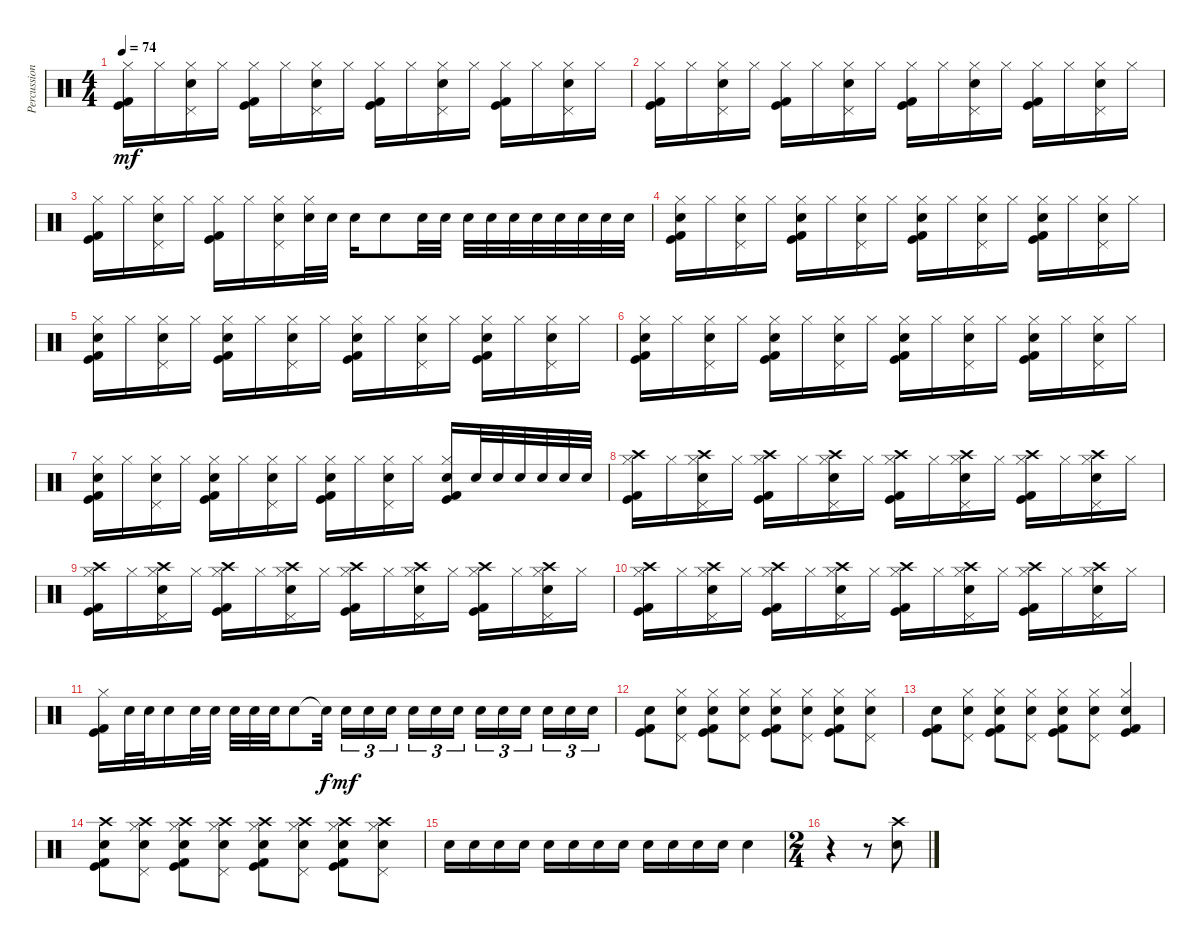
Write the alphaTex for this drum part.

\track ("Percussion" "Percussion") {instrument percussion}
\staff {score}
\articulation defaults
\ts (4 4)
\tempo 74
\clef neutral
\ks c
("Kick (hit) 2" "Kick (hit)" "Hi-Hat (closed)").16{dy mf} "Hi-Hat (closed)".16 ("Electric Snare (hit)" "Pedal Hi-Hat (hit)" "Hi-Hat (closed)").16 "Hi-Hat (closed)".16 ("Kick (hit) 2" "Kick (hit)" "Hi-Hat (closed)").16 "Hi-Hat (closed)".16 ("Electric Snare (hit)" "Pedal Hi-Hat (hit)" "Hi-Hat (closed)").16 "Hi-Hat (closed)".16 ("Kick (hit) 2" "Kick (hit)" "Hi-Hat (closed)").16 "Hi-Hat (closed)".16 ("Electric Snare (hit)" "Pedal Hi-Hat (hit)" "Hi-Hat (closed)").16 "Hi-Hat (closed)".16 ("Kick (hit) 2" "Kick (hit)" "Hi-Hat (closed)").16 "Hi-Hat (closed)".16 ("Electric Snare (hit)" "Pedal Hi-Hat (hit)" "Hi-Hat (closed)").16 "Hi-Hat (closed)".16 |
("Kick (hit) 2" "Kick (hit)" "Hi-Hat (closed)").16 "Hi-Hat (closed)".16 ("Electric Snare (hit)" "Pedal Hi-Hat (hit)" "Hi-Hat (closed)").16 "Hi-Hat (closed)".16 ("Kick (hit) 2" "Kick (hit)" "Hi-Hat (closed)").16 "Hi-Hat (closed)".16 ("Electric Snare (hit)" "Pedal Hi-Hat (hit)" "Hi-Hat (closed)").16 "Hi-Hat (closed)".16 ("Kick (hit) 2" "Kick (hit)" "Hi-Hat (closed)").16 "Hi-Hat (closed)".16 ("Electric Snare (hit)" "Pedal Hi-Hat (hit)" "Hi-Hat (closed)").16 "Hi-Hat (closed)".16 ("Kick (hit) 2" "Kick (hit)" "Hi-Hat (closed)").16 "Hi-Hat (closed)".16 ("Electric Snare (hit)" "Pedal Hi-Hat (hit)" "Hi-Hat (closed)").16 "Hi-Hat (closed)".16 |
("Kick (hit) 2" "Kick (hit)" "Hi-Hat (closed)").16 "Hi-Hat (closed)".16 ("Electric Snare (hit)" "Pedal Hi-Hat (hit)" "Hi-Hat (closed)").16 "Hi-Hat (closed)".16 ("Kick (hit) 2" "Kick (hit)" "Hi-Hat (closed)").16 "Hi-Hat (closed)".16 ("Electric Snare (hit)" "Pedal Hi-Hat (hit)" "Hi-Hat (closed)").16 ("Electric Snare (hit)" "Hi-Hat (closed)").32 "Electric Snare (hit)".32 "Electric Snare (hit)".16 "Electric Snare (hit)".8 "Electric Snare (hit)".32 "Electric Snare (hit)".32 "Electric Snare (hit)".32 "Electric Snare (hit)".32 "Electric Snare (hit)".32 "Electric Snare (hit)".32 "Electric Snare (hit)".32 "Electric Snare (hit)".32 "Electric Snare (hit)".32 "Electric Snare (hit)".32 |
("Kick (hit) 2" "Kick (hit)" "Electric Snare (hit)" "Hi-Hat (closed)").16 "Hi-Hat (closed)".16 ("Electric Snare (hit)" "Pedal Hi-Hat (hit)" "Hi-Hat (closed)").16 "Hi-Hat (closed)".16 ("Kick (hit) 2" "Kick (hit)" "Electric Snare (hit)" "Hi-Hat (closed)").16 "Hi-Hat (closed)".16 ("Electric Snare (hit)" "Pedal Hi-Hat (hit)" "Hi-Hat (closed)").16 "Hi-Hat (closed)".16 ("Kick (hit) 2" "Kick (hit)" "Electric Snare (hit)" "Hi-Hat (closed)").16 "Hi-Hat (closed)".16 ("Electric Snare (hit)" "Pedal Hi-Hat (hit)" "Hi-Hat (closed)").16 "Hi-Hat (closed)".16 ("Kick (hit) 2" "Kick (hit)" "Electric Snare (hit)" "Hi-Hat (closed)").16 "Hi-Hat (closed)".16 ("Electric Snare (hit)" "Pedal Hi-Hat (hit)" "Hi-Hat (closed)").16 "Hi-Hat (closed)".16 |
("Kick (hit) 2" "Kick (hit)" "Electric Snare (hit)" "Hi-Hat (closed)").16 "Hi-Hat (closed)".16 ("Electric Snare (hit)" "Pedal Hi-Hat (hit)" "Hi-Hat (closed)").16 "Hi-Hat (closed)".16 ("Kick (hit) 2" "Kick (hit)" "Electric Snare (hit)" "Hi-Hat (closed)").16 "Hi-Hat (closed)".16 ("Electric Snare (hit)" "Pedal Hi-Hat (hit)" "Hi-Hat (closed)").16 "Hi-Hat (closed)".16 ("Kick (hit) 2" "Kick (hit)" "Electric Snare (hit)" "Hi-Hat (closed)").16 "Hi-Hat (closed)".16 ("Electric Snare (hit)" "Pedal Hi-Hat (hit)" "Hi-Hat (closed)").16 "Hi-Hat (closed)".16 ("Kick (hit) 2" "Kick (hit)" "Electric Snare (hit)" "Hi-Hat (closed)").16 "Hi-Hat (closed)".16 ("Electric Snare (hit)" "Pedal Hi-Hat (hit)" "Hi-Hat (closed)").16 "Hi-Hat (closed)".16 |
("Kick (hit) 2" "Kick (hit)" "Electric Snare (hit)" "Hi-Hat (closed)").16 "Hi-Hat (closed)".16 ("Electric Snare (hit)" "Pedal Hi-Hat (hit)" "Hi-Hat (closed)").16 "Hi-Hat (closed)".16 ("Kick (hit) 2" "Kick (hit)" "Electric Snare (hit)" "Hi-Hat (closed)").16 "Hi-Hat (closed)".16 ("Electric Snare (hit)" "Pedal Hi-Hat (hit)" "Hi-Hat (closed)").16 "Hi-Hat (closed)".16 ("Kick (hit) 2" "Kick (hit)" "Electric Snare (hit)" "Hi-Hat (closed)").16 "Hi-Hat (closed)".16 ("Electric Snare (hit)" "Pedal Hi-Hat (hit)" "Hi-Hat (closed)").16 "Hi-Hat (closed)".16 ("Kick (hit) 2" "Kick (hit)" "Electric Snare (hit)" "Hi-Hat (closed)").16 "Hi-Hat (closed)".16 ("Electric Snare (hit)" "Pedal Hi-Hat (hit)" "Hi-Hat (closed)").16 "Hi-Hat (closed)".16 |
("Kick (hit) 2" "Kick (hit)" "Electric Snare (hit)" "Hi-Hat (closed)").16 "Hi-Hat (closed)".16 ("Electric Snare (hit)" "Pedal Hi-Hat (hit)" "Hi-Hat (closed)").16 "Hi-Hat (closed)".16 ("Kick (hit) 2" "Kick (hit)" "Electric Snare (hit)" "Hi-Hat (closed)").16 "Hi-Hat (closed)".16 ("Electric Snare (hit)" "Pedal Hi-Hat (hit)" "Hi-Hat (closed)").16 "Hi-Hat (closed)".16 ("Kick (hit) 2" "Kick (hit)" "Electric Snare (hit)" "Hi-Hat (closed)").16 "Hi-Hat (closed)".16 ("Electric Snare (hit)" "Pedal Hi-Hat (hit)" "Hi-Hat (closed)").16 "Hi-Hat (closed)".16 ("Kick (hit) 2" "Kick (hit)" "Electric Snare (hit)" "Hi-Hat (closed)").16 "Electric Snare (hit)".32 "Electric Snare (hit)".32 "Electric Snare (hit)".32 "Electric Snare (hit)".32 "Electric Snare (hit)".32 "Electric Snare (hit)".32 |
("Kick (hit) 2" "Kick (hit)" "Crash high (hit)" "Hi-Hat (closed)").16 "Hi-Hat (closed)".16 ("Electric Snare (hit)" "Pedal Hi-Hat (hit)" "Crash high (hit)" "Hi-Hat (closed)").16 "Hi-Hat (closed)".16 ("Kick (hit) 2" "Kick (hit)" "Crash high (hit)" "Hi-Hat (closed)").16 "Hi-Hat (closed)".16 ("Electric Snare (hit)" "Pedal Hi-Hat (hit)" "Crash high (hit)" "Hi-Hat (closed)").16 "Hi-Hat (closed)".16 ("Kick (hit) 2" "Kick (hit)" "Crash high (hit)" "Hi-Hat (closed)").16 "Hi-Hat (closed)".16 ("Electric Snare (hit)" "Pedal Hi-Hat (hit)" "Crash high (hit)" "Hi-Hat (closed)").16 "Hi-Hat (closed)".16 ("Kick (hit) 2" "Kick (hit)" "Crash high (hit)" "Hi-Hat (closed)").16 "Hi-Hat (closed)".16 ("Electric Snare (hit)" "Pedal Hi-Hat (hit)" "Crash high (hit)" "Hi-Hat (closed)").16 "Hi-Hat (closed)".16 |
("Kick (hit) 2" "Kick (hit)" "Crash high (hit)" "Hi-Hat (closed)").16 "Hi-Hat (closed)".16 ("Electric Snare (hit)" "Pedal Hi-Hat (hit)" "Crash high (hit)" "Hi-Hat (closed)").16 "Hi-Hat (closed)".16 ("Kick (hit) 2" "Kick (hit)" "Crash high (hit)" "Hi-Hat (closed)").16 "Hi-Hat (closed)".16 ("Electric Snare (hit)" "Pedal Hi-Hat (hit)" "Crash high (hit)" "Hi-Hat (closed)").16 "Hi-Hat (closed)".16 ("Kick (hit) 2" "Kick (hit)" "Crash high (hit)" "Hi-Hat (closed)").16 "Hi-Hat (closed)".16 ("Electric Snare (hit)" "Pedal Hi-Hat (hit)" "Crash high (hit)" "Hi-Hat (closed)").16 "Hi-Hat (closed)".16 ("Kick (hit) 2" "Kick (hit)" "Crash high (hit)" "Hi-Hat (closed)").16 "Hi-Hat (closed)".16 ("Electric Snare (hit)" "Pedal Hi-Hat (hit)" "Crash high (hit)" "Hi-Hat (closed)").16 "Hi-Hat (closed)".16 |
("Kick (hit) 2" "Kick (hit)" "Crash high (hit)" "Hi-Hat (closed)").16 "Hi-Hat (closed)".16 ("Electric Snare (hit)" "Pedal Hi-Hat (hit)" "Crash high (hit)" "Hi-Hat (closed)").16 "Hi-Hat (closed)".16 ("Kick (hit) 2" "Kick (hit)" "Crash high (hit)" "Hi-Hat (closed)").16 "Hi-Hat (closed)".16 ("Electric Snare (hit)" "Pedal Hi-Hat (hit)" "Crash high (hit)" "Hi-Hat (closed)").16 "Hi-Hat (closed)".16 ("Kick (hit) 2" "Kick (hit)" "Crash high (hit)" "Hi-Hat (closed)").16 "Hi-Hat (closed)".16 ("Electric Snare (hit)" "Pedal Hi-Hat (hit)" "Crash high (hit)" "Hi-Hat (closed)").16 "Hi-Hat (closed)".16 ("Kick (hit) 2" "Kick (hit)" "Crash high (hit)" "Hi-Hat (closed)").16 "Hi-Hat (closed)".16 ("Electric Snare (hit)" "Pedal Hi-Hat (hit)" "Crash high (hit)" "Hi-Hat (closed)").16 "Hi-Hat (closed)".16 |
("Kick (hit) 2" "Kick (hit)" "Hi-Hat (closed)").16 "Electric Snare (hit)".32 "Electric Snare (hit)".32 "Electric Snare (hit)".16 "Electric Snare (hit)".32 "Electric Snare (hit)".32 "Electric Snare (hit)".32 "Electric Snare (hit)".32 "Electric Snare (hit)".32 "Electric Snare (hit)".8 "Snare (hit)"{t}.32{dy f} "Electric Snare (hit)".16{tu (3 2) dy mf} "Electric Snare (hit)".16{tu (3 2)} "Electric Snare (hit)".16{tu (3 2)} "Electric Snare (hit)".16{tu (3 2)} "Electric Snare (hit)".16{tu (3 2)} "Electric Snare (hit)".16{tu (3 2)} "Electric Snare (hit)".16{tu (3 2)} "Electric Snare (hit)".16{tu (3 2)} "Electric Snare (hit)".16{tu (3 2)} "Electric Snare (hit)".16{tu (3 2)} "Electric Snare (hit)".16{tu (3 2)} "Electric Snare (hit)".16{tu (3 2)} |
("Kick (hit) 2" "Kick (hit)" "Electric Snare (hit)").8 ("Electric Snare (hit)" "Pedal Hi-Hat (hit)" "Hi-Hat (closed)").8 ("Kick (hit) 2" "Kick (hit)" "Electric Snare (hit)" "Hi-Hat (closed)").8 ("Electric Snare (hit)" "Pedal Hi-Hat (hit)" "Hi-Hat (closed)").8 ("Kick (hit) 2" "Kick (hit)" "Electric Snare (hit)" "Hi-Hat (closed)").8 ("Electric Snare (hit)" "Pedal Hi-Hat (hit)" "Hi-Hat (closed)").8 ("Kick (hit) 2" "Kick (hit)" "Electric Snare (hit)" "Hi-Hat (closed)").8 ("Electric Snare (hit)" "Pedal Hi-Hat (hit)" "Hi-Hat (closed)").8 |
("Kick (hit) 2" "Kick (hit)" "Electric Snare (hit)").8 ("Electric Snare (hit)" "Pedal Hi-Hat (hit)" "Hi-Hat (closed)").8 ("Kick (hit) 2" "Kick (hit)" "Electric Snare (hit)" "Hi-Hat (closed)").8 ("Electric Snare (hit)" "Pedal Hi-Hat (hit)" "Hi-Hat (closed)").8 ("Kick (hit) 2" "Kick (hit)" "Electric Snare (hit)" "Hi-Hat (closed)").8 ("Electric Snare (hit)" "Pedal Hi-Hat (hit)" "Hi-Hat (closed)").8 ("Kick (hit) 2" "Kick (hit)" "Electric Snare (hit)" "Hi-Hat (closed)").4 |
("Kick (hit) 2" "Kick (hit)" "Electric Snare (hit)" "Crash high (hit)").8 ("Electric Snare (hit)" "Pedal Hi-Hat (hit)" "Hi-Hat (closed)" "Crash high (hit)").8 ("Kick (hit) 2" "Kick (hit)" "Electric Snare (hit)" "Hi-Hat (closed)" "Crash high (hit)").8 ("Electric Snare (hit)" "Pedal Hi-Hat (hit)" "Hi-Hat (closed)" "Crash high (hit)").8 ("Kick (hit) 2" "Kick (hit)" "Electric Snare (hit)" "Hi-Hat (closed)" "Crash high (hit)").8 ("Electric Snare (hit)" "Pedal Hi-Hat (hit)" "Hi-Hat (closed)" "Crash high (hit)").8 ("Kick (hit) 2" "Kick (hit)" "Electric Snare (hit)" "Hi-Hat (closed)" "Crash high (hit)").8 ("Electric Snare (hit)" "Pedal Hi-Hat (hit)" "Hi-Hat (closed)" "Crash high (hit)").8 |
"Electric Snare (hit)".16{volume 2} "Electric Snare (hit)".16 "Electric Snare (hit)".16{volume 5} "Electric Snare (hit)".16 "Electric Snare (hit)".16{volume 6} "Electric Snare (hit)".16 "Electric Snare (hit)".16{volume 8} "Electric Snare (hit)".16 "Electric Snare (hit)".16{volume 11} "Electric Snare (hit)".16 "Electric Snare (hit)".16{volume 13} "Electric Snare (hit)".16 "Electric Snare (hit)".4 |
\ts (2 4)
r.4 r.8 ("Electric Snare (hit)" "Crash high (hit)").8
